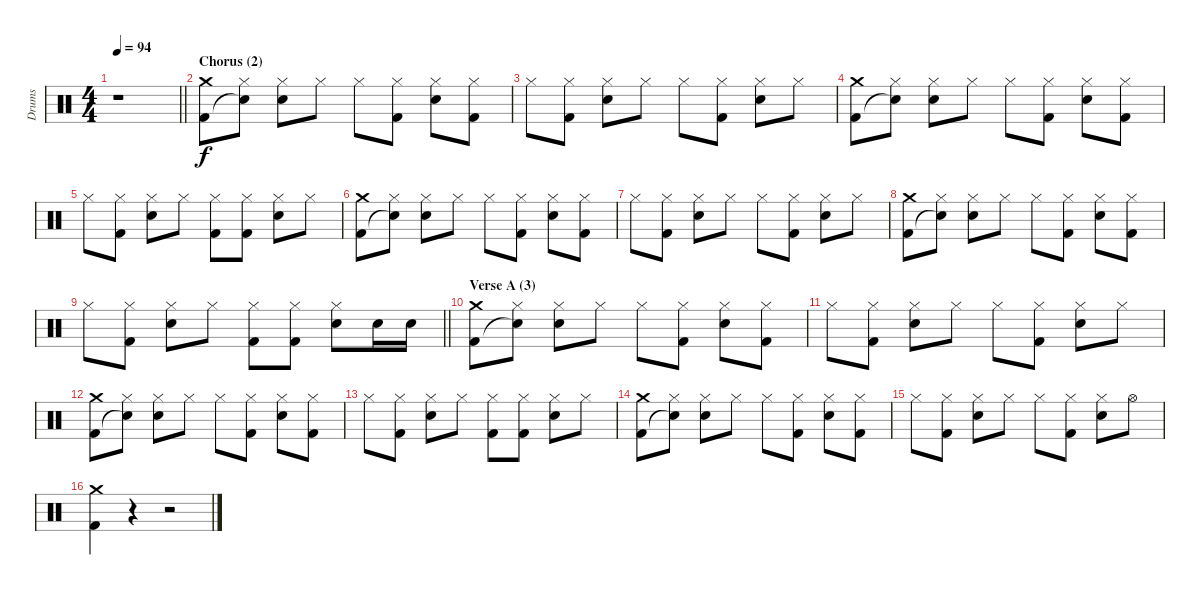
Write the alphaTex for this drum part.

\track ("Drums" "Drums") {instrument percussion}
\staff {score}
\articulation defaults
\ts (4 4)
\tempo 94
\clef neutral
\barLineRight lightlight
\ks aminor
r.1{dy f} |
\section ("" "Chorus (2)")
("Crash medium (hit)" "Kick (hit) 2").8 ("Hi-Hat (closed)" "Snare (hit)"{t}).8 ("Hi-Hat (closed)" "Electric Snare (hit)").8 "Hi-Hat (closed)".8 "Hi-Hat (closed)".8 ("Hi-Hat (closed)" "Kick (hit) 2").8 ("Hi-Hat (closed)" "Electric Snare (hit)").8 ("Hi-Hat (closed)" "Kick (hit) 2").8 |
"Hi-Hat (closed)".8 ("Hi-Hat (closed)" "Kick (hit) 2").8 ("Hi-Hat (closed)" "Electric Snare (hit)").8 "Hi-Hat (closed)".8 "Hi-Hat (closed)".8 ("Hi-Hat (closed)" "Kick (hit) 2").8 ("Hi-Hat (closed)" "Electric Snare (hit)").8 "Hi-Hat (closed)".8 |
("Crash medium (hit)" "Kick (hit) 2").8 ("Hi-Hat (closed)" "Snare (hit)"{t}).8 ("Hi-Hat (closed)" "Electric Snare (hit)").8 "Hi-Hat (closed)".8 "Hi-Hat (closed)".8 ("Hi-Hat (closed)" "Kick (hit) 2").8 ("Hi-Hat (closed)" "Electric Snare (hit)").8 ("Hi-Hat (closed)" "Kick (hit) 2").8 |
"Hi-Hat (closed)".8 ("Hi-Hat (closed)" "Kick (hit) 2").8 ("Hi-Hat (closed)" "Electric Snare (hit)").8 "Hi-Hat (closed)".8 ("Hi-Hat (closed)" "Kick (hit) 2").8 ("Hi-Hat (closed)" "Kick (hit) 2").8 ("Hi-Hat (closed)" "Electric Snare (hit)").8 "Hi-Hat (closed)".8 |
("Crash medium (hit)" "Kick (hit) 2").8 ("Hi-Hat (closed)" "Snare (hit)"{t}).8 ("Hi-Hat (closed)" "Electric Snare (hit)").8 "Hi-Hat (closed)".8 "Hi-Hat (closed)".8 ("Hi-Hat (closed)" "Kick (hit) 2").8 ("Hi-Hat (closed)" "Electric Snare (hit)").8 ("Hi-Hat (closed)" "Kick (hit) 2").8 |
"Hi-Hat (closed)".8 ("Hi-Hat (closed)" "Kick (hit) 2").8 ("Hi-Hat (closed)" "Electric Snare (hit)").8 "Hi-Hat (closed)".8 "Hi-Hat (closed)".8 ("Hi-Hat (closed)" "Kick (hit) 2").8 ("Hi-Hat (closed)" "Electric Snare (hit)").8 "Hi-Hat (closed)".8 |
("Crash medium (hit)" "Kick (hit) 2").8 ("Hi-Hat (closed)" "Snare (hit)"{t}).8 ("Hi-Hat (closed)" "Electric Snare (hit)").8 "Hi-Hat (closed)".8 "Hi-Hat (closed)".8 ("Hi-Hat (closed)" "Kick (hit) 2").8 ("Hi-Hat (closed)" "Electric Snare (hit)").8 ("Hi-Hat (closed)" "Kick (hit) 2").8 |
\barLineRight lightlight "Hi-Hat (closed)".8
("Hi-Hat (closed)" "Kick (hit) 2").8 ("Hi-Hat (closed)" "Electric Snare (hit)").8 "Hi-Hat (closed)".8 ("Hi-Hat (closed)" "Kick (hit) 2").8 ("Hi-Hat (closed)" "Kick (hit) 2").8 ("Hi-Hat (closed)" "Electric Snare (hit)").8 "Electric Snare (hit)".16 "Electric Snare (hit)".16 |
\section ("" "Verse A (3)")
("Crash medium (hit)" "Kick (hit) 2").8 ("Hi-Hat (closed)" "Snare (hit)"{t}).8 ("Hi-Hat (closed)" "Electric Snare (hit)").8 "Hi-Hat (closed)".8 "Hi-Hat (closed)".8 ("Hi-Hat (closed)" "Kick (hit) 2").8 ("Hi-Hat (closed)" "Electric Snare (hit)").8 ("Hi-Hat (closed)" "Kick (hit) 2").8 |
"Hi-Hat (closed)".8 ("Hi-Hat (closed)" "Kick (hit) 2").8 ("Hi-Hat (closed)" "Electric Snare (hit)").8 "Hi-Hat (closed)".8 "Hi-Hat (closed)".8 ("Hi-Hat (closed)" "Kick (hit) 2").8 ("Hi-Hat (closed)" "Electric Snare (hit)").8 "Hi-Hat (closed)".8 |
("Crash medium (hit)" "Kick (hit) 2").8 ("Hi-Hat (closed)" "Snare (hit)"{t}).8 ("Hi-Hat (closed)" "Electric Snare (hit)").8 "Hi-Hat (closed)".8 "Hi-Hat (closed)".8 ("Hi-Hat (closed)" "Kick (hit) 2").8 ("Hi-Hat (closed)" "Electric Snare (hit)").8 ("Hi-Hat (closed)" "Kick (hit) 2").8 |
"Hi-Hat (closed)".8 ("Hi-Hat (closed)" "Kick (hit) 2").8 ("Hi-Hat (closed)" "Electric Snare (hit)").8 "Hi-Hat (closed)".8 ("Hi-Hat (closed)" "Kick (hit) 2").8 ("Hi-Hat (closed)" "Kick (hit) 2").8 ("Hi-Hat (closed)" "Electric Snare (hit)").8 "Hi-Hat (closed)".8 |
("Crash medium (hit)" "Kick (hit) 2").8 ("Hi-Hat (closed)" "Snare (hit)"{t}).8 ("Hi-Hat (closed)" "Electric Snare (hit)").8 "Hi-Hat (closed)".8 "Hi-Hat (closed)".8 ("Hi-Hat (closed)" "Kick (hit) 2").8 ("Hi-Hat (closed)" "Electric Snare (hit)").8 ("Hi-Hat (closed)" "Kick (hit) 2").8 |
"Hi-Hat (closed)".8 ("Hi-Hat (closed)" "Kick (hit) 2").8 ("Hi-Hat (closed)" "Electric Snare (hit)").8 "Hi-Hat (closed)".8 "Hi-Hat (closed)".8 ("Hi-Hat (closed)" "Kick (hit) 2").8 ("Hi-Hat (closed)" "Electric Snare (hit)").8 "Hi-Hat (open)".8 |
("Crash medium (hit)" "Kick (hit) 2").4 r.4 r.2
